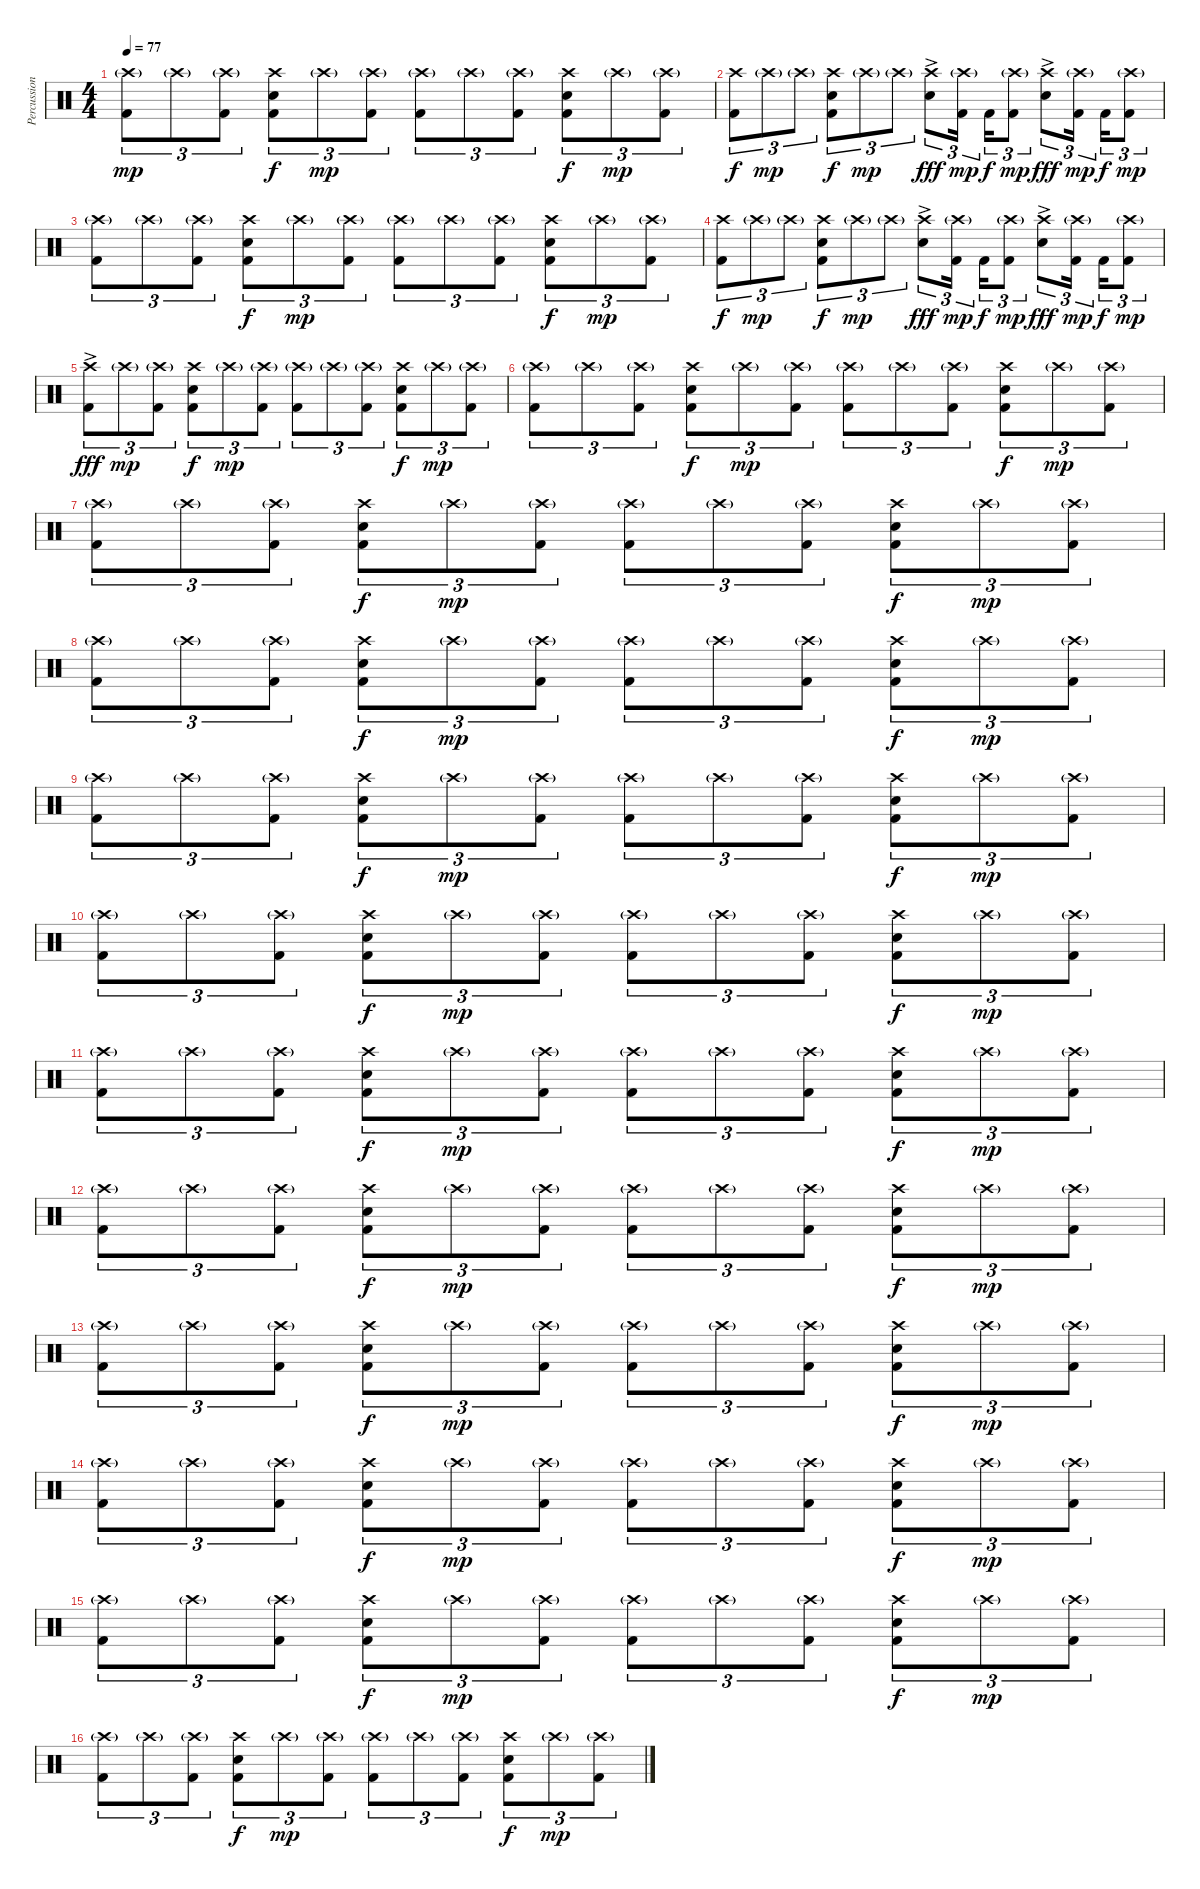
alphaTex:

\track ("Percussion" "Percussion") {instrument percussion}
\staff {score}
\articulation defaults
\ts (4 4)
\tempo 77
\clef neutral
\ks c
("Crash high (hit)"{g} "Kick (hit) 2").8{tu (3 2) dy mp} "Crash high (hit)"{g}.8{tu (3 2)} ("Crash high (hit)"{g} "Kick (hit) 2").8{tu (3 2)} ("Crash high (hit)" "Snare (hit) 2" "Kick (hit) 2").8{tu (3 2) dy f} "Crash high (hit)"{g}.8{tu (3 2) dy mp} ("Crash high (hit)"{g} "Kick (hit) 2").8{tu (3 2)} ("Crash high (hit)"{g} "Kick (hit) 2").8{tu (3 2)} "Crash high (hit)"{g}.8{tu (3 2)} ("Crash high (hit)"{g} "Kick (hit) 2").8{tu (3 2)} ("Crash high (hit)" "Snare (hit) 2" "Kick (hit) 2").8{tu (3 2) dy f} "Crash high (hit)"{g}.8{tu (3 2) dy mp} ("Crash high (hit)"{g} "Kick (hit) 2").8{tu (3 2)} |
("Crash high (hit)" "Kick (hit) 2").8{tu (3 2) dy f} "Crash high (hit)"{g}.8{tu (3 2) dy mp} "Crash high (hit)"{g}.8{tu (3 2)} ("Crash high (hit)" "Snare (hit) 2" "Kick (hit) 2").8{tu (3 2) dy f} "Crash high (hit)"{g}.8{tu (3 2) dy mp} "Crash high (hit)"{g}.8{tu (3 2)} ("Crash high (hit)"{ac} "Snare (hit) 2").8{tu (3 2) dy fff} ("Crash high (hit)"{g} "Kick (hit) 2").16{tu (3 2) dy mp} "Kick (hit) 2".16{tu (3 2) dy f} ("Crash high (hit)"{g} "Kick (hit) 2").8{tu (3 2) dy mp} ("Crash high (hit)"{ac} "Snare (hit) 2").8{tu (3 2) dy fff} ("Crash high (hit)"{g} "Kick (hit) 2").16{tu (3 2) dy mp} "Kick (hit) 2".16{tu (3 2) dy f} ("Crash high (hit)"{g} "Kick (hit) 2").8{tu (3 2) dy mp} |
("Crash high (hit)"{g} "Kick (hit) 2").8{tu (3 2)} "Crash high (hit)"{g}.8{tu (3 2)} ("Crash high (hit)"{g} "Kick (hit) 2").8{tu (3 2)} ("Crash high (hit)" "Snare (hit) 2" "Kick (hit) 2").8{tu (3 2) dy f} "Crash high (hit)"{g}.8{tu (3 2) dy mp} ("Crash high (hit)"{g} "Kick (hit) 2").8{tu (3 2)} ("Crash high (hit)"{g} "Kick (hit) 2").8{tu (3 2)} "Crash high (hit)"{g}.8{tu (3 2)} ("Crash high (hit)"{g} "Kick (hit) 2").8{tu (3 2)} ("Crash high (hit)" "Snare (hit) 2" "Kick (hit) 2").8{tu (3 2) dy f} "Crash high (hit)"{g}.8{tu (3 2) dy mp} ("Crash high (hit)"{g} "Kick (hit) 2").8{tu (3 2)} |
("Crash high (hit)" "Kick (hit) 2").8{tu (3 2) dy f} "Crash high (hit)"{g}.8{tu (3 2) dy mp} "Crash high (hit)"{g}.8{tu (3 2)} ("Crash high (hit)" "Snare (hit) 2" "Kick (hit) 2").8{tu (3 2) dy f} "Crash high (hit)"{g}.8{tu (3 2) dy mp} "Crash high (hit)"{g}.8{tu (3 2)} ("Crash high (hit)"{ac} "Snare (hit) 2").8{tu (3 2) dy fff} ("Crash high (hit)"{g} "Kick (hit) 2").16{tu (3 2) dy mp} "Kick (hit) 2".16{tu (3 2) dy f} ("Crash high (hit)"{g} "Kick (hit) 2").8{tu (3 2) dy mp} ("Crash high (hit)"{ac} "Snare (hit) 2").8{tu (3 2) dy fff} ("Crash high (hit)"{g} "Kick (hit) 2").16{tu (3 2) dy mp} "Kick (hit) 2".16{tu (3 2) dy f} ("Crash high (hit)"{g} "Kick (hit) 2").8{tu (3 2) dy mp} |
("Crash high (hit)"{ac} "Kick (hit) 2").8{tu (3 2) dy fff} "Crash high (hit)"{g}.8{tu (3 2) dy mp} ("Crash high (hit)"{g} "Kick (hit) 2").8{tu (3 2)} ("Crash high (hit)" "Snare (hit) 2" "Kick (hit) 2").8{tu (3 2) dy f} "Crash high (hit)"{g}.8{tu (3 2) dy mp} ("Crash high (hit)"{g} "Kick (hit) 2").8{tu (3 2)} ("Crash high (hit)"{g} "Kick (hit) 2").8{tu (3 2)} "Crash high (hit)"{g}.8{tu (3 2)} ("Crash high (hit)"{g} "Kick (hit) 2").8{tu (3 2)} ("Crash high (hit)" "Snare (hit) 2" "Kick (hit) 2").8{tu (3 2) dy f} "Crash high (hit)"{g}.8{tu (3 2) dy mp} ("Crash high (hit)"{g} "Kick (hit) 2").8{tu (3 2)} |
("Crash high (hit)"{g} "Kick (hit) 2").8{tu (3 2)} "Crash high (hit)"{g}.8{tu (3 2)} ("Crash high (hit)"{g} "Kick (hit) 2").8{tu (3 2)} ("Crash high (hit)" "Snare (hit) 2" "Kick (hit) 2").8{tu (3 2) dy f} "Crash high (hit)"{g}.8{tu (3 2) dy mp} ("Crash high (hit)"{g} "Kick (hit) 2").8{tu (3 2)} ("Crash high (hit)"{g} "Kick (hit) 2").8{tu (3 2)} "Crash high (hit)"{g}.8{tu (3 2)} ("Crash high (hit)"{g} "Kick (hit) 2").8{tu (3 2)} ("Crash high (hit)" "Snare (hit) 2" "Kick (hit) 2").8{tu (3 2) dy f} "Crash high (hit)"{g}.8{tu (3 2) dy mp} ("Crash high (hit)"{g} "Kick (hit) 2").8{tu (3 2)} |
("Crash high (hit)"{g} "Kick (hit) 2").8{tu (3 2)} "Crash high (hit)"{g}.8{tu (3 2)} ("Crash high (hit)"{g} "Kick (hit) 2").8{tu (3 2)} ("Crash high (hit)" "Snare (hit) 2" "Kick (hit) 2").8{tu (3 2) dy f} "Crash high (hit)"{g}.8{tu (3 2) dy mp} ("Crash high (hit)"{g} "Kick (hit) 2").8{tu (3 2)} ("Crash high (hit)"{g} "Kick (hit) 2").8{tu (3 2)} "Crash high (hit)"{g}.8{tu (3 2)} ("Crash high (hit)"{g} "Kick (hit) 2").8{tu (3 2)} ("Crash high (hit)" "Snare (hit) 2" "Kick (hit) 2").8{tu (3 2) dy f} "Crash high (hit)"{g}.8{tu (3 2) dy mp} ("Crash high (hit)"{g} "Kick (hit) 2").8{tu (3 2)} |
("Crash high (hit)"{g} "Kick (hit) 2").8{tu (3 2)} "Crash high (hit)"{g}.8{tu (3 2)} ("Crash high (hit)"{g} "Kick (hit) 2").8{tu (3 2)} ("Crash high (hit)" "Snare (hit) 2" "Kick (hit) 2").8{tu (3 2) dy f} "Crash high (hit)"{g}.8{tu (3 2) dy mp} ("Crash high (hit)"{g} "Kick (hit) 2").8{tu (3 2)} ("Crash high (hit)"{g} "Kick (hit) 2").8{tu (3 2)} "Crash high (hit)"{g}.8{tu (3 2)} ("Crash high (hit)"{g} "Kick (hit) 2").8{tu (3 2)} ("Crash high (hit)" "Snare (hit) 2" "Kick (hit) 2").8{tu (3 2) dy f} "Crash high (hit)"{g}.8{tu (3 2) dy mp} ("Crash high (hit)"{g} "Kick (hit) 2").8{tu (3 2)} |
("Crash high (hit)"{g} "Kick (hit) 2").8{tu (3 2)} "Crash high (hit)"{g}.8{tu (3 2)} ("Crash high (hit)"{g} "Kick (hit) 2").8{tu (3 2)} ("Crash high (hit)" "Snare (hit) 2" "Kick (hit) 2").8{tu (3 2) dy f} "Crash high (hit)"{g}.8{tu (3 2) dy mp} ("Crash high (hit)"{g} "Kick (hit) 2").8{tu (3 2)} ("Crash high (hit)"{g} "Kick (hit) 2").8{tu (3 2)} "Crash high (hit)"{g}.8{tu (3 2)} ("Crash high (hit)"{g} "Kick (hit) 2").8{tu (3 2)} ("Crash high (hit)" "Snare (hit) 2" "Kick (hit) 2").8{tu (3 2) dy f} "Crash high (hit)"{g}.8{tu (3 2) dy mp} ("Crash high (hit)"{g} "Kick (hit) 2").8{tu (3 2)} |
("Crash high (hit)"{g} "Kick (hit) 2").8{tu (3 2)} "Crash high (hit)"{g}.8{tu (3 2)} ("Crash high (hit)"{g} "Kick (hit) 2").8{tu (3 2)} ("Crash high (hit)" "Snare (hit) 2" "Kick (hit) 2").8{tu (3 2) dy f} "Crash high (hit)"{g}.8{tu (3 2) dy mp} ("Crash high (hit)"{g} "Kick (hit) 2").8{tu (3 2)} ("Crash high (hit)"{g} "Kick (hit) 2").8{tu (3 2)} "Crash high (hit)"{g}.8{tu (3 2)} ("Crash high (hit)"{g} "Kick (hit) 2").8{tu (3 2)} ("Crash high (hit)" "Snare (hit) 2" "Kick (hit) 2").8{tu (3 2) dy f} "Crash high (hit)"{g}.8{tu (3 2) dy mp} ("Crash high (hit)"{g} "Kick (hit) 2").8{tu (3 2)} |
("Crash high (hit)"{g} "Kick (hit) 2").8{tu (3 2)} "Crash high (hit)"{g}.8{tu (3 2)} ("Crash high (hit)"{g} "Kick (hit) 2").8{tu (3 2)} ("Crash high (hit)" "Snare (hit) 2" "Kick (hit) 2").8{tu (3 2) dy f} "Crash high (hit)"{g}.8{tu (3 2) dy mp} ("Crash high (hit)"{g} "Kick (hit) 2").8{tu (3 2)} ("Crash high (hit)"{g} "Kick (hit) 2").8{tu (3 2)} "Crash high (hit)"{g}.8{tu (3 2)} ("Crash high (hit)"{g} "Kick (hit) 2").8{tu (3 2)} ("Crash high (hit)" "Snare (hit) 2" "Kick (hit) 2").8{tu (3 2) dy f} "Crash high (hit)"{g}.8{tu (3 2) dy mp} ("Crash high (hit)"{g} "Kick (hit) 2").8{tu (3 2)} |
("Crash high (hit)"{g} "Kick (hit) 2").8{tu (3 2)} "Crash high (hit)"{g}.8{tu (3 2)} ("Crash high (hit)"{g} "Kick (hit) 2").8{tu (3 2)} ("Crash high (hit)" "Snare (hit) 2" "Kick (hit) 2").8{tu (3 2) dy f} "Crash high (hit)"{g}.8{tu (3 2) dy mp} ("Crash high (hit)"{g} "Kick (hit) 2").8{tu (3 2)} ("Crash high (hit)"{g} "Kick (hit) 2").8{tu (3 2)} "Crash high (hit)"{g}.8{tu (3 2)} ("Crash high (hit)"{g} "Kick (hit) 2").8{tu (3 2)} ("Crash high (hit)" "Snare (hit) 2" "Kick (hit) 2").8{tu (3 2) dy f} "Crash high (hit)"{g}.8{tu (3 2) dy mp} ("Crash high (hit)"{g} "Kick (hit) 2").8{tu (3 2)} |
("Crash high (hit)"{g} "Kick (hit) 2").8{tu (3 2)} "Crash high (hit)"{g}.8{tu (3 2)} ("Crash high (hit)"{g} "Kick (hit) 2").8{tu (3 2)} ("Crash high (hit)" "Snare (hit) 2" "Kick (hit) 2").8{tu (3 2) dy f} "Crash high (hit)"{g}.8{tu (3 2) dy mp} ("Crash high (hit)"{g} "Kick (hit) 2").8{tu (3 2)} ("Crash high (hit)"{g} "Kick (hit) 2").8{tu (3 2)} "Crash high (hit)"{g}.8{tu (3 2)} ("Crash high (hit)"{g} "Kick (hit) 2").8{tu (3 2)} ("Crash high (hit)" "Snare (hit) 2" "Kick (hit) 2").8{tu (3 2) dy f} "Crash high (hit)"{g}.8{tu (3 2) dy mp} ("Crash high (hit)"{g} "Kick (hit) 2").8{tu (3 2)} |
("Crash high (hit)"{g} "Kick (hit) 2").8{tu (3 2)} "Crash high (hit)"{g}.8{tu (3 2)} ("Crash high (hit)"{g} "Kick (hit) 2").8{tu (3 2)} ("Crash high (hit)" "Snare (hit) 2" "Kick (hit) 2").8{tu (3 2) dy f} "Crash high (hit)"{g}.8{tu (3 2) dy mp} ("Crash high (hit)"{g} "Kick (hit) 2").8{tu (3 2)} ("Crash high (hit)"{g} "Kick (hit) 2").8{tu (3 2)} "Crash high (hit)"{g}.8{tu (3 2)} ("Crash high (hit)"{g} "Kick (hit) 2").8{tu (3 2)} ("Crash high (hit)" "Snare (hit) 2" "Kick (hit) 2").8{tu (3 2) dy f} "Crash high (hit)"{g}.8{tu (3 2) dy mp} ("Crash high (hit)"{g} "Kick (hit) 2").8{tu (3 2)} |
("Crash high (hit)"{g} "Kick (hit) 2").8{tu (3 2)} "Crash high (hit)"{g}.8{tu (3 2)} ("Crash high (hit)"{g} "Kick (hit) 2").8{tu (3 2)} ("Crash high (hit)" "Snare (hit) 2" "Kick (hit) 2").8{tu (3 2) dy f} "Crash high (hit)"{g}.8{tu (3 2) dy mp} ("Crash high (hit)"{g} "Kick (hit) 2").8{tu (3 2)} ("Crash high (hit)"{g} "Kick (hit) 2").8{tu (3 2)} "Crash high (hit)"{g}.8{tu (3 2)} ("Crash high (hit)"{g} "Kick (hit) 2").8{tu (3 2)} ("Crash high (hit)" "Snare (hit) 2" "Kick (hit) 2").8{tu (3 2) dy f} "Crash high (hit)"{g}.8{tu (3 2) dy mp} ("Crash high (hit)"{g} "Kick (hit) 2").8{tu (3 2)} |
("Crash high (hit)"{g} "Kick (hit) 2").8{tu (3 2)} "Crash high (hit)"{g}.8{tu (3 2)} ("Crash high (hit)"{g} "Kick (hit) 2").8{tu (3 2)} ("Crash high (hit)" "Snare (hit) 2" "Kick (hit) 2").8{tu (3 2) dy f} "Crash high (hit)"{g}.8{tu (3 2) dy mp} ("Crash high (hit)"{g} "Kick (hit) 2").8{tu (3 2)} ("Crash high (hit)"{g} "Kick (hit) 2").8{tu (3 2)} "Crash high (hit)"{g}.8{tu (3 2)} ("Crash high (hit)"{g} "Kick (hit) 2").8{tu (3 2)} ("Crash high (hit)" "Snare (hit) 2" "Kick (hit) 2").8{tu (3 2) dy f} "Crash high (hit)"{g}.8{tu (3 2) dy mp} ("Crash high (hit)"{g} "Kick (hit) 2").8{tu (3 2)}
